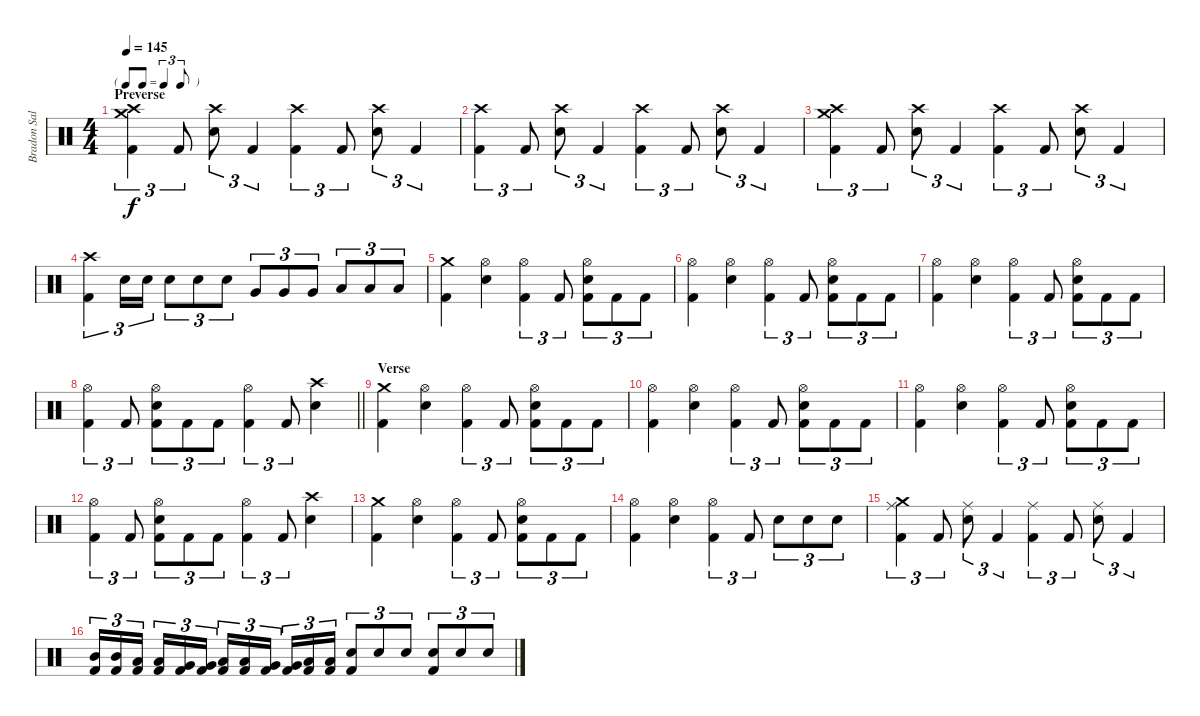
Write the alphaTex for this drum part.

\track ("Bradon Saller" "Bradon Sal") {instrument percussion}
\staff {score}
\articulation defaults
\ts (4 4)
\tf triplet8th
\section ("" "Preverse")
\tempo 145
\clef neutral
\ks c
("Crash medium (hit)" "Crash high (hit)" "Kick (hit) 2").4{tu (3 2) dy f} "Kick (hit) 2".8{tu (3 2)} ("Crash high (hit)" "Electric Snare (hit)").8{tu (3 2)} "Kick (hit) 2".4{tu (3 2)} ("Crash high (hit)" "Kick (hit) 2").4{tu (3 2)} "Kick (hit) 2".8{tu (3 2)} ("Crash high (hit)" "Electric Snare (hit)").8{tu (3 2)} "Kick (hit) 2".4{tu (3 2)} |
("Crash high (hit)" "Kick (hit) 2").4{tu (3 2)} "Kick (hit) 2".8{tu (3 2)} ("Crash high (hit)" "Electric Snare (hit)").8{tu (3 2)} "Kick (hit) 2".4{tu (3 2)} ("Crash high (hit)" "Kick (hit) 2").4{tu (3 2)} "Kick (hit) 2".8{tu (3 2)} ("Crash high (hit)" "Electric Snare (hit)").8{tu (3 2)} "Kick (hit) 2".4{tu (3 2)} |
("Crash medium (hit)" "Crash high (hit)" "Kick (hit) 2").4{tu (3 2)} "Kick (hit) 2".8{tu (3 2)} ("Crash high (hit)" "Electric Snare (hit)").8{tu (3 2)} "Kick (hit) 2".4{tu (3 2)} ("Crash high (hit)" "Kick (hit) 2").4{tu (3 2)} "Kick (hit) 2".8{tu (3 2)} ("Crash high (hit)" "Electric Snare (hit)").8{tu (3 2)} "Kick (hit) 2".4{tu (3 2)} |
("Crash high (hit)" "Kick (hit) 2").4{tu (3 2)} "Electric Snare (hit)".16{tu (3 2)} "Electric Snare (hit)".16{tu (3 2)} "Electric Snare (hit)".8{tu (3 2)} "Electric Snare (hit)".8{tu (3 2)} "Electric Snare (hit)".8{tu (3 2)} "Very Low Tom (hit)".8{tu (3 2)} "Very Low Tom (hit)".8{tu (3 2)} "Very Low Tom (hit)".8{tu (3 2)} "Low Floor Tom (hit)".8{tu (3 2)} "Low Floor Tom (hit)".8{tu (3 2)} "Low Floor Tom (hit)".8{tu (3 2)} |
("Crash medium (hit)" "Kick (hit) 2").4 ("Hi-Hat (open)" "Electric Snare (hit)").4 ("Hi-Hat (open)" "Kick (hit) 2").4{tu (3 2)} "Kick (hit) 2".8{tu (3 2)} ("Hi-Hat (open)" "Electric Snare (hit)" "Kick (hit) 2").8{tu (3 2)} "Kick (hit) 2".8{tu (3 2)} "Kick (hit) 2".8{tu (3 2)} |
("Hi-Hat (open)" "Kick (hit) 2").4 ("Hi-Hat (open)" "Electric Snare (hit)").4 ("Hi-Hat (open)" "Kick (hit) 2").4{tu (3 2)} "Kick (hit) 2".8{tu (3 2)} ("Hi-Hat (open)" "Electric Snare (hit)" "Kick (hit) 2").8{tu (3 2)} "Kick (hit) 2".8{tu (3 2)} "Kick (hit) 2".8{tu (3 2)} |
("Hi-Hat (open)" "Kick (hit) 2").4 ("Hi-Hat (open)" "Electric Snare (hit)").4 ("Hi-Hat (open)" "Kick (hit) 2").4{tu (3 2)} "Kick (hit) 2".8{tu (3 2)} ("Hi-Hat (open)" "Electric Snare (hit)" "Kick (hit) 2").8{tu (3 2)} "Kick (hit) 2".8{tu (3 2)} "Kick (hit) 2".8{tu (3 2)} |
\barLineRight lightlight
("Hi-Hat (open)" "Kick (hit) 2").4{tu (3 2)} "Kick (hit) 2".8{tu (3 2)} ("Hi-Hat (open)" "Electric Snare (hit)" "Kick (hit) 2").8{tu (3 2)} "Kick (hit) 2".8{tu (3 2)} "Kick (hit) 2".8{tu (3 2)} ("Hi-Hat (open)" "Kick (hit) 2").4{tu (3 2)} "Kick (hit) 2".8{tu (3 2)} ("Crash high (hit)" "Electric Snare (hit)").4 |
\section ("" "Verse")
("Crash medium (hit)" "Kick (hit) 2").4 ("Hi-Hat (open)" "Electric Snare (hit)").4 ("Hi-Hat (open)" "Kick (hit) 2").4{tu (3 2)} "Kick (hit) 2".8{tu (3 2)} ("Hi-Hat (open)" "Electric Snare (hit)" "Kick (hit) 2").8{tu (3 2)} "Kick (hit) 2".8{tu (3 2)} "Kick (hit) 2".8{tu (3 2)} |
("Hi-Hat (open)" "Kick (hit) 2").4 ("Hi-Hat (open)" "Electric Snare (hit)").4 ("Hi-Hat (open)" "Kick (hit) 2").4{tu (3 2)} "Kick (hit) 2".8{tu (3 2)} ("Hi-Hat (open)" "Electric Snare (hit)" "Kick (hit) 2").8{tu (3 2)} "Kick (hit) 2".8{tu (3 2)} "Kick (hit) 2".8{tu (3 2)} |
("Hi-Hat (open)" "Kick (hit) 2").4 ("Hi-Hat (open)" "Electric Snare (hit)").4 ("Hi-Hat (open)" "Kick (hit) 2").4{tu (3 2)} "Kick (hit) 2".8{tu (3 2)} ("Hi-Hat (open)" "Electric Snare (hit)" "Kick (hit) 2").8{tu (3 2)} "Kick (hit) 2".8{tu (3 2)} "Kick (hit) 2".8{tu (3 2)} |
("Hi-Hat (open)" "Kick (hit) 2").4{tu (3 2)} "Kick (hit) 2".8{tu (3 2)} ("Hi-Hat (open)" "Electric Snare (hit)" "Kick (hit) 2").8{tu (3 2)} "Kick (hit) 2".8{tu (3 2)} "Kick (hit) 2".8{tu (3 2)} ("Hi-Hat (open)" "Kick (hit) 2").4{tu (3 2)} "Kick (hit) 2".8{tu (3 2)} ("Crash high (hit)" "Electric Snare (hit)").4 |
("Crash medium (hit)" "Kick (hit) 2").4 ("Hi-Hat (open)" "Electric Snare (hit)").4 ("Hi-Hat (open)" "Kick (hit) 2").4{tu (3 2)} "Kick (hit) 2".8{tu (3 2)} ("Hi-Hat (open)" "Electric Snare (hit)" "Kick (hit) 2").8{tu (3 2)} "Kick (hit) 2".8{tu (3 2)} "Kick (hit) 2".8{tu (3 2)} |
("Hi-Hat (open)" "Kick (hit) 2").4 ("Hi-Hat (open)" "Electric Snare (hit)").4 ("Hi-Hat (open)" "Kick (hit) 2").4{tu (3 2)} "Kick (hit) 2".8{tu (3 2)} "Electric Snare (hit)".8{tu (3 2)} "Electric Snare (hit)".8{tu (3 2)} "Electric Snare (hit)".8{tu (3 2)} |
("Crash medium (hit)" "Ride (middle)" "Kick (hit) 2").4{tu (3 2)} "Kick (hit) 2".8{tu (3 2)} ("Ride (middle)" "Electric Snare (hit)").8{tu (3 2)} "Kick (hit) 2".4{tu (3 2)} ("Ride (middle)" "Kick (hit) 2").4{tu (3 2)} "Kick (hit) 2".8{tu (3 2)} ("Ride (middle)" "Electric Snare (hit)").8{tu (3 2)} "Kick (hit) 2".4{tu (3 2)} |
("Mid Tom (hit)" "Kick (hit) 2").16{tu (3 2)} ("Mid Tom (hit)" "Kick (hit) 2").16{tu (3 2)} ("Low Tom (hit)" "Kick (hit) 2").16{tu (3 2) beam splitsecondary} ("Low Tom (hit)" "Kick (hit) 2").16{tu (3 2)} ("Very Low Tom (hit)" "Kick (hit) 2").16{tu (3 2)} ("Very Low Tom (hit)" "Kick (hit) 2").16{tu (3 2)} ("Low Tom (hit)" "Kick (hit) 2").16{tu (3 2)} ("Low Tom (hit)" "Kick (hit) 2").16{tu (3 2)} ("Very Low Tom (hit)" "Kick (hit) 2").16{tu (3 2) beam splitsecondary} ("Very Low Tom (hit)" "Kick (hit) 2").16{tu (3 2)} ("Low Floor Tom (hit)" "Kick (hit) 2").16{tu (3 2)} ("Low Floor Tom (hit)" "Kick (hit) 2").16{tu (3 2)} ("Electric Snare (hit)" "Kick (hit) 2").8{tu (3 2)} "Electric Snare (hit)".8{tu (3 2)} "Electric Snare (hit)".8{tu (3 2)} ("Electric Snare (hit)" "Kick (hit) 2").8{tu (3 2)} "Electric Snare (hit)".8{tu (3 2)} "Electric Snare (hit)".8{tu (3 2)}
